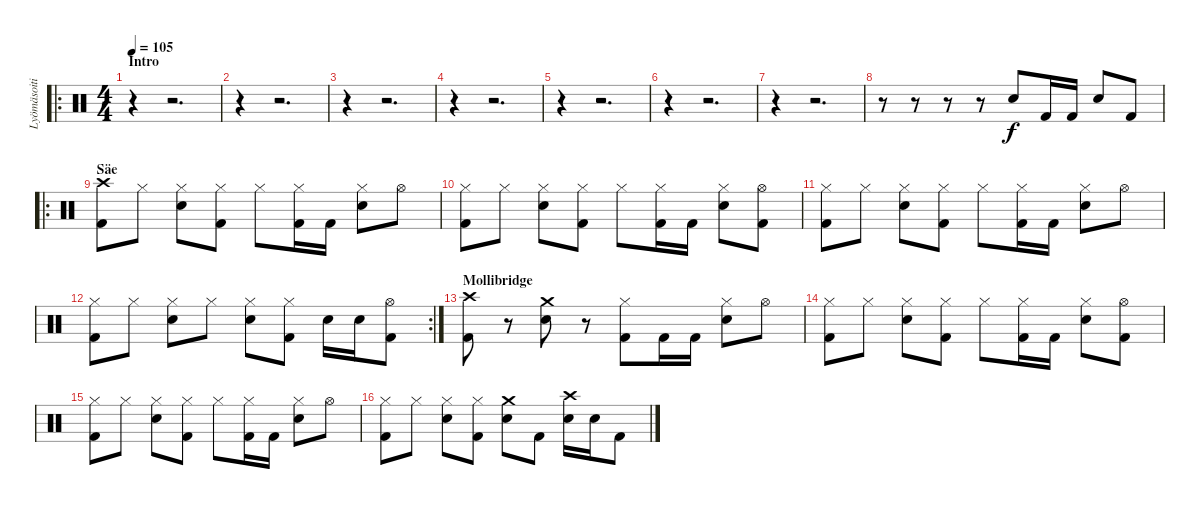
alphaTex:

\track ("Lyömäsoitin" "Lyömäsoiti") {instrument percussion}
\staff {score}
\articulation defaults
\ro
\ts (4 4)
\section ("" "Intro")
\tempo 105
\clef neutral
\ks c
r.4{dy f} r.2{d} |
r.4 r.2{d} |
r.4 r.2{d} |
r.4 r.2{d} |
r.4 r.2{d} |
r.4 r.2{d} |
r.4 r.2{d} |
r.8 r.8 r.8 r.8 "Electric Snare (hit)".8 "Kick (hit) 2".16 "Kick (hit) 2".16 "Electric Snare (hit)".8 "Kick (hit) 2".8 |
\ro
\section ("" "Säe")
("Crash high (hit)" "Kick (hit) 2").8 "Hi-Hat (closed)".8 ("Hi-Hat (closed)" "Electric Snare (hit)").8 ("Hi-Hat (closed)" "Kick (hit) 2").8 "Hi-Hat (closed)".8 ("Hi-Hat (closed)" "Kick (hit) 2").16 "Kick (hit) 2".16 ("Hi-Hat (closed)" "Electric Snare (hit)").8 "Hi-Hat (open)".8 |
("Hi-Hat (closed)" "Kick (hit) 2").8 "Hi-Hat (closed)".8 ("Hi-Hat (closed)" "Electric Snare (hit)").8 ("Hi-Hat (closed)" "Kick (hit) 2").8 "Hi-Hat (closed)".8 ("Hi-Hat (closed)" "Kick (hit) 2").16 "Kick (hit) 2".16 ("Hi-Hat (closed)" "Electric Snare (hit)").8 ("Hi-Hat (open)" "Kick (hit) 2").8 |
("Hi-Hat (closed)" "Kick (hit) 2").8 "Hi-Hat (closed)".8 ("Hi-Hat (closed)" "Electric Snare (hit)").8 ("Hi-Hat (closed)" "Kick (hit) 2").8 "Hi-Hat (closed)".8 ("Hi-Hat (closed)" "Kick (hit) 2").16 "Kick (hit) 2".16 ("Hi-Hat (closed)" "Electric Snare (hit)").8 "Hi-Hat (open)".8 |
\rc 2
("Hi-Hat (closed)" "Kick (hit) 2").8 "Hi-Hat (closed)".8 ("Hi-Hat (closed)" "Electric Snare (hit)").8 "Hi-Hat (closed)".8 ("Hi-Hat (closed)" "Snare (hit) 2").8 ("Hi-Hat (closed)" "Kick (hit) 2").8 "Electric Snare (hit)".16 "Snare (hit) 2".16 ("Hi-Hat (open)" "Kick (hit) 2").8 |
\section ("" "Mollibridge")
("Crash high (hit)" "Kick (hit) 2").8 r.8 ("Crash medium (hit)" "Electric Snare (hit)").8 r.8 ("Hi-Hat (closed)" "Kick (hit) 2").8 "Kick (hit) 2".16 "Kick (hit) 2".16 ("Hi-Hat (closed)" "Electric Snare (hit)").8 "Hi-Hat (open)".8 |
("Hi-Hat (closed)" "Kick (hit) 2").8 "Hi-Hat (closed)".8 ("Hi-Hat (closed)" "Electric Snare (hit)").8 ("Hi-Hat (closed)" "Kick (hit) 2").8 "Hi-Hat (closed)".8 ("Hi-Hat (closed)" "Kick (hit) 2").16 "Kick (hit) 2".16 ("Hi-Hat (closed)" "Electric Snare (hit)").8 ("Hi-Hat (open)" "Kick (hit) 2").8 |
("Hi-Hat (closed)" "Kick (hit) 2").8 "Hi-Hat (closed)".8 ("Hi-Hat (closed)" "Electric Snare (hit)").8 ("Hi-Hat (closed)" "Kick (hit) 2").8 "Hi-Hat (closed)".8 ("Hi-Hat (closed)" "Kick (hit) 2").16 "Kick (hit) 2".16 ("Hi-Hat (closed)" "Electric Snare (hit)").8 "Hi-Hat (open)".8 |
("Hi-Hat (closed)" "Kick (hit) 2").8 "Hi-Hat (closed)".8 ("Hi-Hat (closed)" "Electric Snare (hit)").8 ("Hi-Hat (closed)" "Kick (hit) 2").8 ("Crash medium (hit)" "Snare (hit) 2").8 "Kick (hit) 2".8 ("Crash high (hit)" "Electric Snare (hit)").16 "Snare (hit) 2".16 "Kick (hit) 2".8
